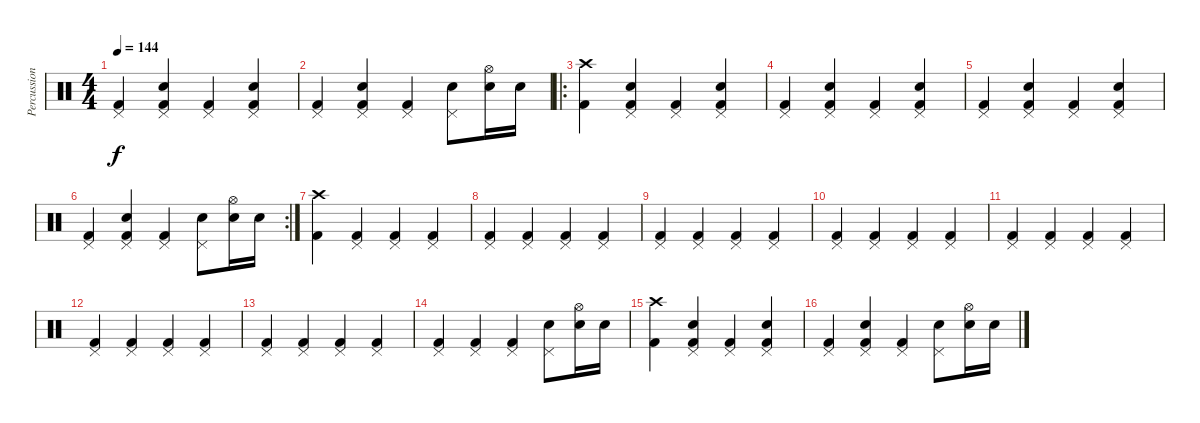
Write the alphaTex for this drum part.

\track ("Percussion" "Percussion") {instrument percussion}
\staff {score}
\articulation defaults
\ts (4 4)
\tempo 144
\clef neutral
\ks c
("Pedal Hi-Hat (hit)" "Kick (hit) 2").4{dy f} ("Pedal Hi-Hat (hit)" "Electric Snare (hit)" "Kick (hit) 2").4 ("Pedal Hi-Hat (hit)" "Kick (hit) 2").4 ("Pedal Hi-Hat (hit)" "Electric Snare (hit)" "Kick (hit) 2").4 |
("Pedal Hi-Hat (hit)" "Kick (hit) 2").4 ("Pedal Hi-Hat (hit)" "Electric Snare (hit)" "Kick (hit) 2").4 ("Pedal Hi-Hat (hit)" "Kick (hit) 2").4 ("Pedal Hi-Hat (hit)" "Electric Snare (hit)").8 ("Hi-Hat (open)" "Electric Snare (hit)").16 "Electric Snare (hit)".16 |
\ro
("Crash high (hit)" "Kick (hit) 2").4 ("Pedal Hi-Hat (hit)" "Electric Snare (hit)" "Kick (hit) 2").4 ("Pedal Hi-Hat (hit)" "Kick (hit) 2").4 ("Pedal Hi-Hat (hit)" "Electric Snare (hit)" "Kick (hit) 2").4 |
("Pedal Hi-Hat (hit)" "Kick (hit) 2").4 ("Pedal Hi-Hat (hit)" "Electric Snare (hit)" "Kick (hit) 2").4 ("Pedal Hi-Hat (hit)" "Kick (hit) 2").4 ("Pedal Hi-Hat (hit)" "Electric Snare (hit)" "Kick (hit) 2").4 |
("Pedal Hi-Hat (hit)" "Kick (hit) 2").4 ("Pedal Hi-Hat (hit)" "Electric Snare (hit)" "Kick (hit) 2").4 ("Pedal Hi-Hat (hit)" "Kick (hit) 2").4 ("Pedal Hi-Hat (hit)" "Electric Snare (hit)" "Kick (hit) 2").4 |
\rc 2
("Pedal Hi-Hat (hit)" "Kick (hit) 2").4 ("Pedal Hi-Hat (hit)" "Electric Snare (hit)" "Kick (hit) 2").4 ("Pedal Hi-Hat (hit)" "Kick (hit) 2").4 ("Pedal Hi-Hat (hit)" "Electric Snare (hit)").8 ("Hi-Hat (open)" "Electric Snare (hit)").16 "Electric Snare (hit)".16 |
("Crash high (hit)" "Kick (hit) 2").4 ("Pedal Hi-Hat (hit)" "Kick (hit) 2").4 ("Pedal Hi-Hat (hit)" "Kick (hit) 2").4 ("Pedal Hi-Hat (hit)" "Kick (hit) 2").4 |
("Pedal Hi-Hat (hit)" "Kick (hit) 2").4 ("Pedal Hi-Hat (hit)" "Kick (hit) 2").4 ("Pedal Hi-Hat (hit)" "Kick (hit) 2").4 ("Pedal Hi-Hat (hit)" "Kick (hit) 2").4 |
("Pedal Hi-Hat (hit)" "Kick (hit) 2").4 ("Pedal Hi-Hat (hit)" "Kick (hit) 2").4 ("Pedal Hi-Hat (hit)" "Kick (hit) 2").4 ("Pedal Hi-Hat (hit)" "Kick (hit) 2").4 |
("Pedal Hi-Hat (hit)" "Kick (hit) 2").4 ("Pedal Hi-Hat (hit)" "Kick (hit) 2").4 ("Pedal Hi-Hat (hit)" "Kick (hit) 2").4 ("Pedal Hi-Hat (hit)" "Kick (hit) 2").4 |
("Pedal Hi-Hat (hit)" "Kick (hit) 2").4 ("Pedal Hi-Hat (hit)" "Kick (hit) 2").4 ("Pedal Hi-Hat (hit)" "Kick (hit) 2").4 ("Pedal Hi-Hat (hit)" "Kick (hit) 2").4 |
("Pedal Hi-Hat (hit)" "Kick (hit) 2").4 ("Pedal Hi-Hat (hit)" "Kick (hit) 2").4 ("Pedal Hi-Hat (hit)" "Kick (hit) 2").4 ("Pedal Hi-Hat (hit)" "Kick (hit) 2").4 |
("Pedal Hi-Hat (hit)" "Kick (hit) 2").4 ("Pedal Hi-Hat (hit)" "Kick (hit) 2").4 ("Pedal Hi-Hat (hit)" "Kick (hit) 2").4 ("Pedal Hi-Hat (hit)" "Kick (hit) 2").4 |
("Pedal Hi-Hat (hit)" "Kick (hit) 2").4 ("Pedal Hi-Hat (hit)" "Kick (hit) 2").4 ("Pedal Hi-Hat (hit)" "Kick (hit) 2").4 ("Pedal Hi-Hat (hit)" "Electric Snare (hit)").8 ("Hi-Hat (open)" "Electric Snare (hit)").16 "Electric Snare (hit)".16 |
("Crash high (hit)" "Kick (hit) 2").4 ("Pedal Hi-Hat (hit)" "Electric Snare (hit)" "Kick (hit) 2").4 ("Pedal Hi-Hat (hit)" "Kick (hit) 2").4 ("Pedal Hi-Hat (hit)" "Electric Snare (hit)" "Kick (hit) 2").4 |
("Pedal Hi-Hat (hit)" "Kick (hit) 2").4 ("Pedal Hi-Hat (hit)" "Electric Snare (hit)" "Kick (hit) 2").4 ("Pedal Hi-Hat (hit)" "Kick (hit) 2").4 ("Pedal Hi-Hat (hit)" "Electric Snare (hit)").8 ("Hi-Hat (open)" "Electric Snare (hit)").16 "Electric Snare (hit)".16
